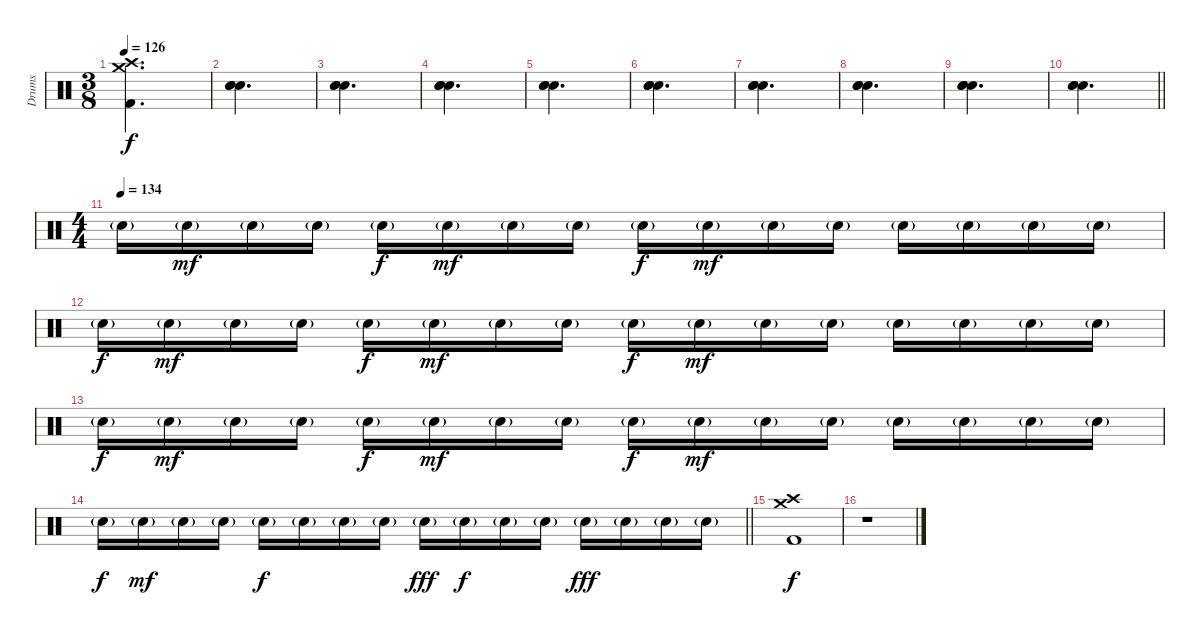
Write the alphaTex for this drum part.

\track ("Drums" "Drums") {instrument percussion}
\staff {score}
\articulation defaults
\ts (3 8)
\tempo 126
\clef neutral
\ks c
("Crash high (hit)" "Crash medium (hit)" "Kick (hit) 2").4{d dy f} |
("Snare (hit)" "Snare (hit)" "Snare (hit)").4{d} |
("Snare (hit)" "Snare (hit)" "Snare (hit)").4{d} |
("Snare (hit)" "Snare (hit)" "Snare (hit)").4{d} |
("Snare (hit)" "Snare (hit)" "Snare (hit)").4{d} |
("Snare (hit)" "Snare (hit)" "Snare (hit)").4{d} |
("Snare (hit)" "Snare (hit)" "Snare (hit)").4{d} |
("Snare (hit)" "Snare (hit)" "Snare (hit)").4{d} |
("Snare (hit)" "Snare (hit)" "Snare (hit)").4{d} |
\barLineRight lightlight
("Snare (hit)" "Snare (hit)" "Snare (hit)").4{d} |
\ts (4 4)
\tempo (134)
"Snare (hit) 2"{g}.16 "Snare (hit) 2"{g}.16{dy mf} "Snare (hit) 2"{g}.16 "Snare (hit) 2"{g}.16 "Snare (hit) 2"{g}.16{dy f} "Snare (hit) 2"{g}.16{dy mf} "Snare (hit) 2"{g}.16 "Snare (hit) 2"{g}.16 "Snare (hit) 2"{g}.16{dy f} "Snare (hit) 2"{g}.16{dy mf} "Snare (hit) 2"{g}.16 "Snare (hit) 2"{g}.16 "Snare (hit) 2"{g}.16 "Snare (hit) 2"{g}.16 "Snare (hit) 2"{g}.16 "Snare (hit) 2"{g}.16 |
"Snare (hit) 2"{g}.16{dy f} "Snare (hit) 2"{g}.16{dy mf} "Snare (hit) 2"{g}.16 "Snare (hit) 2"{g}.16 "Snare (hit) 2"{g}.16{dy f} "Snare (hit) 2"{g}.16{dy mf} "Snare (hit) 2"{g}.16 "Snare (hit) 2"{g}.16 "Snare (hit) 2"{g}.16{dy f} "Snare (hit) 2"{g}.16{dy mf} "Snare (hit) 2"{g}.16 "Snare (hit) 2"{g}.16 "Snare (hit) 2"{g}.16 "Snare (hit) 2"{g}.16 "Snare (hit) 2"{g}.16 "Snare (hit) 2"{g}.16 |
"Snare (hit) 2"{g}.16{dy f} "Snare (hit) 2"{g}.16{dy mf} "Snare (hit) 2"{g}.16 "Snare (hit) 2"{g}.16 "Snare (hit) 2"{g}.16{dy f} "Snare (hit) 2"{g}.16{dy mf} "Snare (hit) 2"{g}.16 "Snare (hit) 2"{g}.16 "Snare (hit) 2"{g}.16{dy f} "Snare (hit) 2"{g}.16{dy mf} "Snare (hit) 2"{g}.16 "Snare (hit) 2"{g}.16 "Snare (hit) 2"{g}.16 "Snare (hit) 2"{g}.16 "Snare (hit) 2"{g}.16 "Snare (hit) 2"{g}.16 |
\barLineRight lightlight "Snare (hit) 2"{g}.16{dy f} "Snare (hit) 2"{g}.16{dy mf} "Snare (hit) 2"{g}.16 "Snare (hit) 2"{g}.16 "Snare (hit) 2"{g}.16{dy f} "Snare (hit) 2"{g}.16 "Snare (hit) 2"{g}.16 "Snare (hit) 2"{g}.16 "Snare (hit) 2"{g}.16{dy fff} "Snare (hit) 2"{g}.16{dy f} "Snare (hit) 2"{g}.16 "Snare (hit) 2"{g}.16 "Snare (hit) 2"{g}.16{dy fff} "Snare (hit) 2"{g}.16 "Snare (hit) 2"{g}.16 "Snare (hit) 2"{g}.16
|
("Crash high (hit)" "Crash medium (hit)" "Kick (hit) 2").1{dy f} |
r.1
